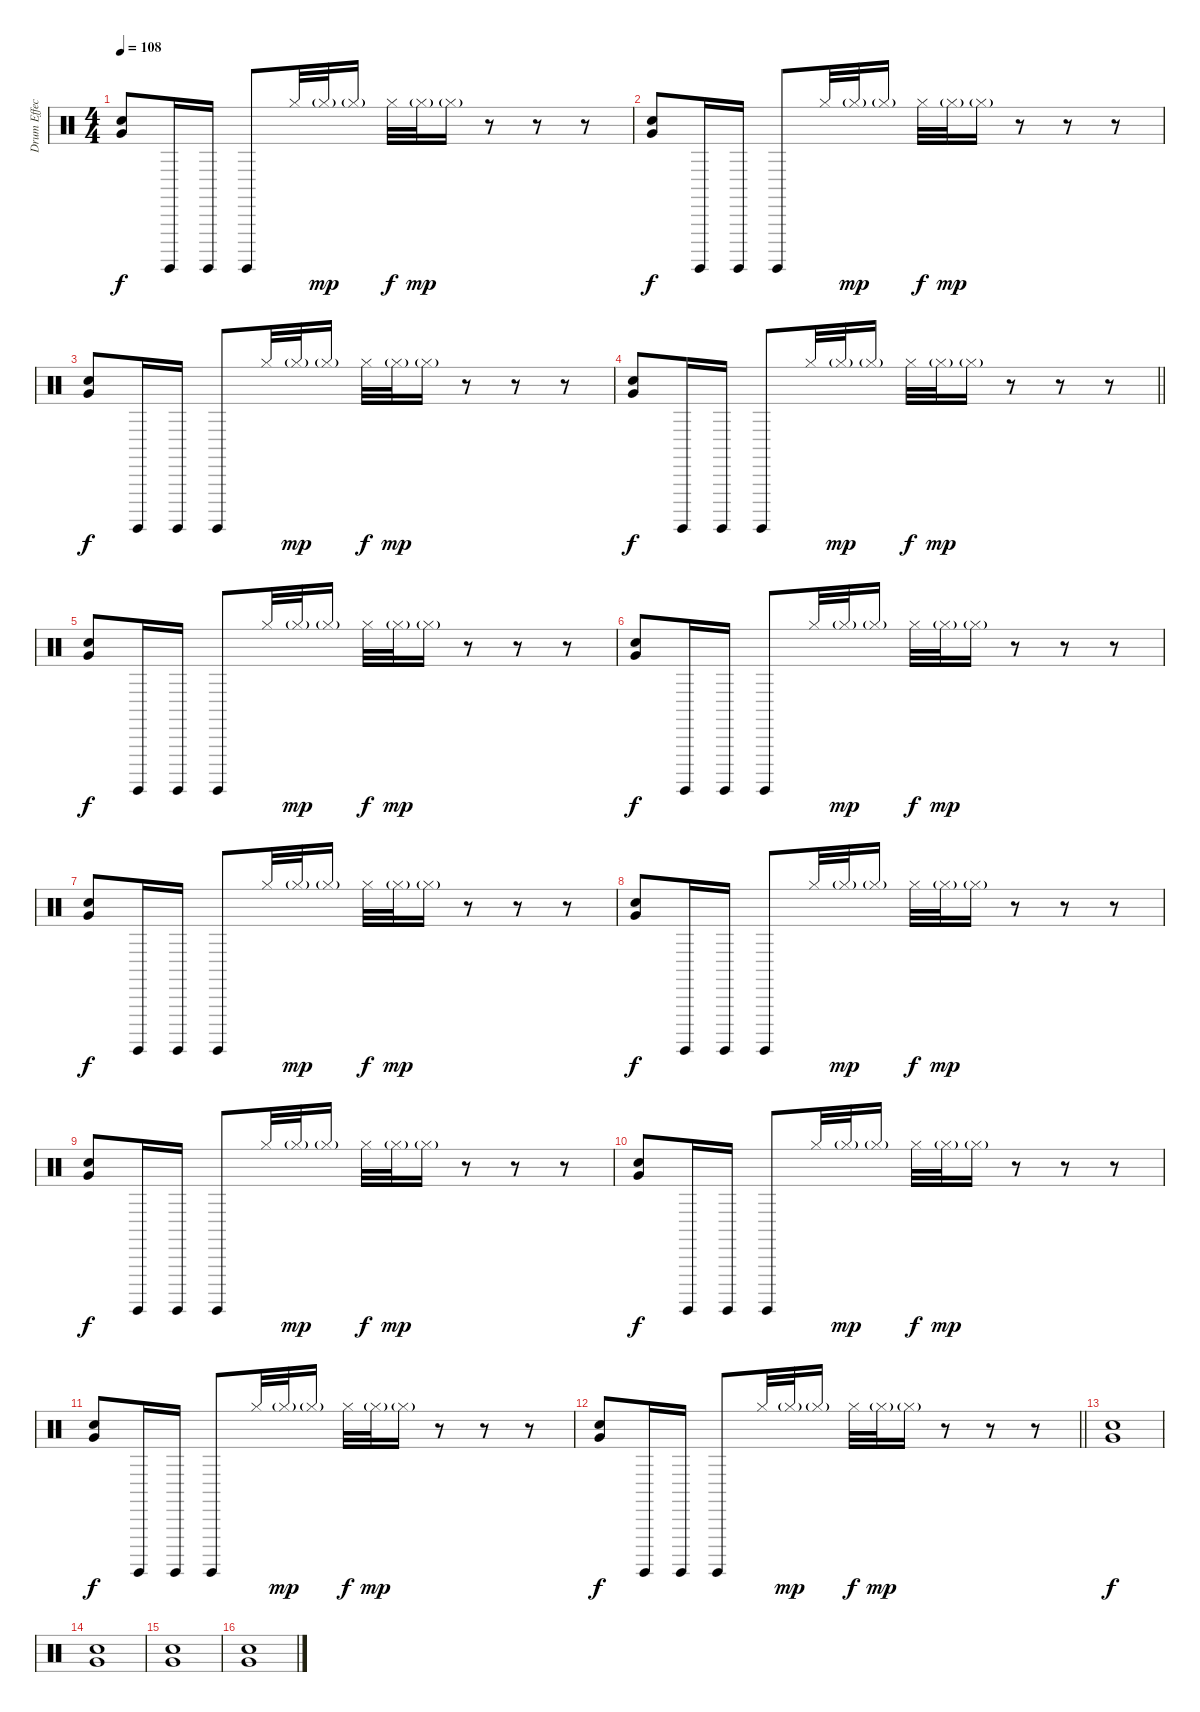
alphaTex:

\track ("Drum Effects" "Drum Effec") {instrument percussion}
\staff {score}
\articulation defaults
\ts (4 4)
\tempo 108
\clef neutral
\ks c
("Hand Clap (hit)" "Very Low Tom (hit)").8{dy f} "Surdo (hit)".16 "Surdo (hit)".16 "Surdo (hit)".8 "Hi-Hat (closed)".32 "Hi-Hat (closed)"{g}.32{dy mp} "Hi-Hat (closed)"{g}.16 "Hi-Hat (closed)".32{dy f} "Hi-Hat (closed)"{g}.32{dy mp} "Hi-Hat (closed)"{g}.16 r.8 r.8 r.8 |
("Hand Clap (hit)" "Very Low Tom (hit)").8{dy f} "Surdo (hit)".16 "Surdo (hit)".16 "Surdo (hit)".8 "Hi-Hat (closed)".32 "Hi-Hat (closed)"{g}.32{dy mp} "Hi-Hat (closed)"{g}.16 "Hi-Hat (closed)".32{dy f} "Hi-Hat (closed)"{g}.32{dy mp} "Hi-Hat (closed)"{g}.16 r.8 r.8 r.8 |
("Hand Clap (hit)" "Very Low Tom (hit)").8{dy f} "Surdo (hit)".16 "Surdo (hit)".16 "Surdo (hit)".8 "Hi-Hat (closed)".32 "Hi-Hat (closed)"{g}.32{dy mp} "Hi-Hat (closed)"{g}.16 "Hi-Hat (closed)".32{dy f} "Hi-Hat (closed)"{g}.32{dy mp} "Hi-Hat (closed)"{g}.16 r.8 r.8 r.8 |
\barLineRight lightlight
("Hand Clap (hit)" "Very Low Tom (hit)").8{dy f} "Surdo (hit)".16 "Surdo (hit)".16 "Surdo (hit)".8 "Hi-Hat (closed)".32 "Hi-Hat (closed)"{g}.32{dy mp} "Hi-Hat (closed)"{g}.16 "Hi-Hat (closed)".32{dy f} "Hi-Hat (closed)"{g}.32{dy mp} "Hi-Hat (closed)"{g}.16 r.8 r.8 r.8 |
\section ("" "")
("Hand Clap (hit)" "Very Low Tom (hit)").8{dy f} "Surdo (hit)".16 "Surdo (hit)".16 "Surdo (hit)".8 "Hi-Hat (closed)".32 "Hi-Hat (closed)"{g}.32{dy mp} "Hi-Hat (closed)"{g}.16 "Hi-Hat (closed)".32{dy f} "Hi-Hat (closed)"{g}.32{dy mp} "Hi-Hat (closed)"{g}.16 r.8 r.8 r.8 |
("Hand Clap (hit)" "Very Low Tom (hit)").8{dy f} "Surdo (hit)".16 "Surdo (hit)".16 "Surdo (hit)".8 "Hi-Hat (closed)".32 "Hi-Hat (closed)"{g}.32{dy mp} "Hi-Hat (closed)"{g}.16 "Hi-Hat (closed)".32{dy f} "Hi-Hat (closed)"{g}.32{dy mp} "Hi-Hat (closed)"{g}.16 r.8 r.8 r.8 |
("Hand Clap (hit)" "Very Low Tom (hit)").8{dy f} "Surdo (hit)".16 "Surdo (hit)".16 "Surdo (hit)".8 "Hi-Hat (closed)".32 "Hi-Hat (closed)"{g}.32{dy mp} "Hi-Hat (closed)"{g}.16 "Hi-Hat (closed)".32{dy f} "Hi-Hat (closed)"{g}.32{dy mp} "Hi-Hat (closed)"{g}.16 r.8 r.8 r.8 |
("Hand Clap (hit)" "Very Low Tom (hit)").8{dy f} "Surdo (hit)".16 "Surdo (hit)".16 "Surdo (hit)".8 "Hi-Hat (closed)".32 "Hi-Hat (closed)"{g}.32{dy mp} "Hi-Hat (closed)"{g}.16 "Hi-Hat (closed)".32{dy f} "Hi-Hat (closed)"{g}.32{dy mp} "Hi-Hat (closed)"{g}.16 r.8 r.8 r.8 |
("Hand Clap (hit)" "Very Low Tom (hit)").8{dy f} "Surdo (hit)".16 "Surdo (hit)".16 "Surdo (hit)".8 "Hi-Hat (closed)".32 "Hi-Hat (closed)"{g}.32{dy mp} "Hi-Hat (closed)"{g}.16 "Hi-Hat (closed)".32{dy f} "Hi-Hat (closed)"{g}.32{dy mp} "Hi-Hat (closed)"{g}.16 r.8 r.8 r.8 |
("Hand Clap (hit)" "Very Low Tom (hit)").8{dy f} "Surdo (hit)".16 "Surdo (hit)".16 "Surdo (hit)".8 "Hi-Hat (closed)".32 "Hi-Hat (closed)"{g}.32{dy mp} "Hi-Hat (closed)"{g}.16 "Hi-Hat (closed)".32{dy f} "Hi-Hat (closed)"{g}.32{dy mp} "Hi-Hat (closed)"{g}.16 r.8 r.8 r.8 |
("Hand Clap (hit)" "Very Low Tom (hit)").8{dy f} "Surdo (hit)".16 "Surdo (hit)".16 "Surdo (hit)".8 "Hi-Hat (closed)".32 "Hi-Hat (closed)"{g}.32{dy mp} "Hi-Hat (closed)"{g}.16 "Hi-Hat (closed)".32{dy f} "Hi-Hat (closed)"{g}.32{dy mp} "Hi-Hat (closed)"{g}.16 r.8 r.8 r.8 |
\barLineRight lightlight
("Hand Clap (hit)" "Very Low Tom (hit)").8{dy f} "Surdo (hit)".16 "Surdo (hit)".16 "Surdo (hit)".8 "Hi-Hat (closed)".32 "Hi-Hat (closed)"{g}.32{dy mp} "Hi-Hat (closed)"{g}.16 "Hi-Hat (closed)".32{dy f} "Hi-Hat (closed)"{g}.32{dy mp} "Hi-Hat (closed)"{g}.16 r.8 r.8 r.8 |
\section ("" "")
("Hand Clap (hit)" "Very Low Tom (hit)").1{dy f} |
("Hand Clap (hit)" "Very Low Tom (hit)").1 |
("Hand Clap (hit)" "Very Low Tom (hit)").1 |
("Hand Clap (hit)" "Very Low Tom (hit)").1
